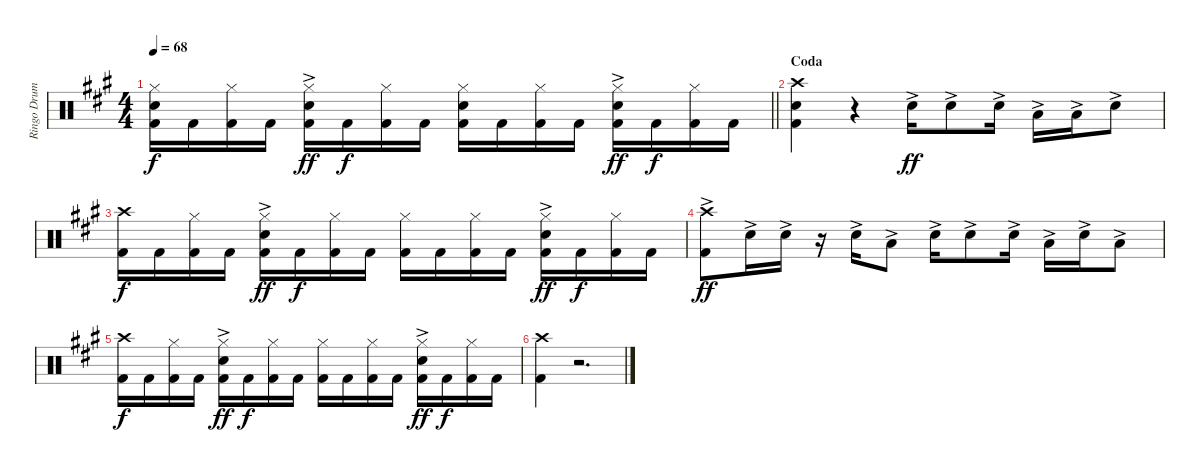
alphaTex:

\track ("Ringo Drums" "Ringo Drum") {instrument percussion}
\staff {score}
\articulation defaults
\ts (4 4)
\tempo 68
\clef neutral
\barLineRight lightlight
\ks a
("Hi-Hat (closed)" "Snare (hit) 2" "Kick (hit) 2").16{dy f} "Kick (hit) 2".16 ("Hi-Hat (closed)" "Kick (hit) 2").16 "Kick (hit) 2".16 ("Hi-Hat (closed)" "Snare (hit) 2"{ac} "Kick (hit) 2").16{dy ff} "Kick (hit) 2".16{dy f} ("Hi-Hat (closed)" "Kick (hit) 2").16 "Kick (hit) 2".16 ("Hi-Hat (closed)" "Snare (hit) 2" "Kick (hit) 2").16 "Kick (hit) 2".16 ("Hi-Hat (closed)" "Kick (hit) 2").16 "Kick (hit) 2".16 ("Hi-Hat (closed)" "Snare (hit) 2"{ac} "Kick (hit) 2").16{dy ff} "Kick (hit) 2".16{dy f} ("Hi-Hat (closed)" "Kick (hit) 2").16 "Kick (hit) 2".16 |
\section ("" "Coda")
("Crash high (hit)" "Snare (hit) 2" "Kick (hit) 2").4 r.4 "Snare (hit) 2"{ac}.16{dy ff} "Electric Snare (hit)"{ac}.8 "Snare (hit) 2"{ac}.16 "Low Tom (hit)"{ac}.16 "Low Tom (hit)"{ac}.16 "Snare (hit) 2"{ac}.8 |
("Crash high (hit)" "Kick (hit) 2").16{dy f} "Kick (hit) 2".16 ("Hi-Hat (closed)" "Kick (hit) 2").16 "Kick (hit) 2".16 ("Hi-Hat (closed)" "Snare (hit) 2"{ac} "Kick (hit) 2").16{dy ff} "Kick (hit) 2".16{dy f} ("Hi-Hat (closed)" "Kick (hit) 2").16 "Kick (hit) 2".16 ("Hi-Hat (closed)" "Kick (hit) 2").16 "Kick (hit) 2".16 ("Hi-Hat (closed)" "Kick (hit) 2").16 "Kick (hit) 2".16 ("Hi-Hat (closed)" "Snare (hit) 2"{ac} "Kick (hit) 2").16{dy ff} "Kick (hit) 2".16{dy f} ("Hi-Hat (closed)" "Kick (hit) 2").16 "Kick (hit) 2".16 |
("Crash high (hit)"{ac} "Kick (hit) 2"{ac}).8{dy ff} "Snare (hit) 2"{ac}.16 "Electric Snare (hit)"{ac}.16 r.16 "Snare (hit) 2"{ac}.16 "Low Tom (hit)"{ac}.8 "Snare (hit) 2"{ac}.16 "Electric Snare (hit)"{ac}.8 "Snare (hit) 2"{ac}.16 "Low Tom (hit)"{ac}.16 "Snare (hit) 2"{ac}.16 "Low Tom (hit)"{ac}.8 |
("Crash high (hit)" "Kick (hit) 2").16{dy f} "Kick (hit) 2".16 ("Hi-Hat (closed)" "Kick (hit) 2").16 "Kick (hit) 2".16 ("Hi-Hat (closed)" "Snare (hit) 2"{ac} "Kick (hit) 2").16{dy ff} "Kick (hit) 2".16{dy f} ("Hi-Hat (closed)" "Kick (hit) 2").16 "Kick (hit) 2".16 ("Hi-Hat (closed)" "Kick (hit) 2").16 "Kick (hit) 2".16 ("Hi-Hat (closed)" "Kick (hit) 2").16 "Kick (hit) 2".16 ("Hi-Hat (closed)" "Snare (hit) 2"{ac} "Kick (hit) 2").16{dy ff} "Kick (hit) 2".16{dy f} ("Hi-Hat (closed)" "Kick (hit) 2").16 "Kick (hit) 2".16 |
("Crash high (hit)" "Kick (hit) 2").4 r.2{d}
